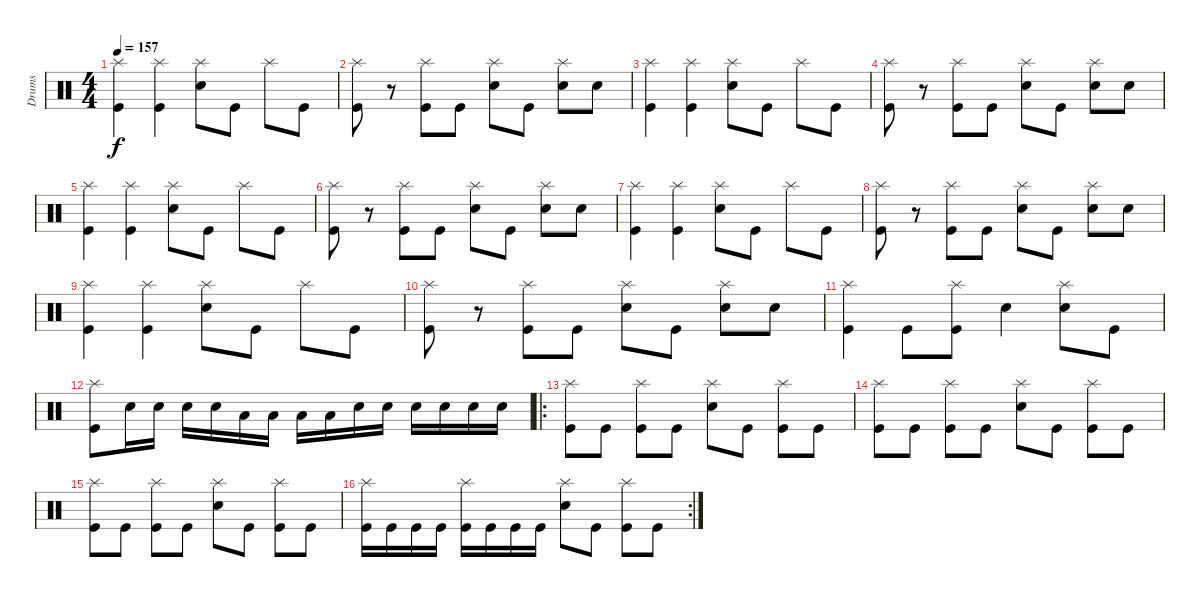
\track ("Drums" "Drums") {instrument percussion}
\staff {score}
\articulation defaults
\ts (4 4)
\tempo 157
\clef neutral
\ks c
("Splash (hit)" "Kick (hit)").4{dy f} ("Splash (hit)" "Kick (hit)").4 ("Splash (hit)" "Electric Snare (hit)").8 "Kick (hit)".8 "Splash (hit)".8 "Kick (hit)".8 |
("Splash (hit)" "Kick (hit)").8 r.8 ("Splash (hit)" "Kick (hit)").8 "Kick (hit)".8 ("Splash (hit)" "Electric Snare (hit)").8 "Kick (hit)".8 ("Splash (hit)" "Electric Snare (hit)").8 "Electric Snare (hit)".8 |
("Splash (hit)" "Kick (hit)").4 ("Splash (hit)" "Kick (hit)").4 ("Splash (hit)" "Electric Snare (hit)").8 "Kick (hit)".8 "Splash (hit)".8 "Kick (hit)".8 |
("Splash (hit)" "Kick (hit)").8 r.8 ("Splash (hit)" "Kick (hit)").8 "Kick (hit)".8 ("Splash (hit)" "Electric Snare (hit)").8 "Kick (hit)".8 ("Splash (hit)" "Electric Snare (hit)").8 "Electric Snare (hit)".8 |
("Splash (hit)" "Kick (hit)").4 ("Splash (hit)" "Kick (hit)").4 ("Splash (hit)" "Electric Snare (hit)").8 "Kick (hit)".8 "Splash (hit)".8 "Kick (hit)".8 |
("Splash (hit)" "Kick (hit)").8 r.8 ("Splash (hit)" "Kick (hit)").8 "Kick (hit)".8 ("Splash (hit)" "Electric Snare (hit)").8 "Kick (hit)".8 ("Splash (hit)" "Electric Snare (hit)").8 "Electric Snare (hit)".8 |
("Splash (hit)" "Kick (hit)").4 ("Splash (hit)" "Kick (hit)").4 ("Splash (hit)" "Electric Snare (hit)").8 "Kick (hit)".8 "Splash (hit)".8 "Kick (hit)".8 |
("Splash (hit)" "Kick (hit)").8 r.8 ("Splash (hit)" "Kick (hit)").8 "Kick (hit)".8 ("Splash (hit)" "Electric Snare (hit)").8 "Kick (hit)".8 ("Splash (hit)" "Electric Snare (hit)").8 "Electric Snare (hit)".8 |
("Splash (hit)" "Kick (hit)").4 ("Splash (hit)" "Kick (hit)").4 ("Splash (hit)" "Electric Snare (hit)").8 "Kick (hit)".8 "Splash (hit)".8 "Kick (hit)".8 |
("Splash (hit)" "Kick (hit)").8 r.8 ("Splash (hit)" "Kick (hit)").8 "Kick (hit)".8 ("Splash (hit)" "Electric Snare (hit)").8 "Kick (hit)".8 ("Splash (hit)" "Electric Snare (hit)").8 "Electric Snare (hit)".8 |
("Splash (hit)" "Kick (hit)").4 "Kick (hit)".8 ("Splash (hit)" "Kick (hit)").8 "Electric Snare (hit)".4 ("Splash (hit)" "Electric Snare (hit)").8 "Kick (hit)".8 |
("Splash (hit)" "Kick (hit)").8 "Electric Snare (hit)".16 "Electric Snare (hit)".16 "Electric Snare (hit)".16 "Electric Snare (hit)".16 "Low Tom (hit)".16 "Low Tom (hit)".16 "Low Tom (hit)".16 "Low Tom (hit)".16 "Electric Snare (hit)".16 "Electric Snare (hit)".16 "Electric Snare (hit)".16 "Electric Snare (hit)".16 "Electric Snare (hit)".16 "Electric Snare (hit)".16 |
\ro
("Splash (hit)" "Kick (hit)").8 "Kick (hit)".8 ("Splash (hit)" "Kick (hit)").8 "Kick (hit)".8 ("Splash (hit)" "Electric Snare (hit)").8 "Kick (hit)".8 ("Splash (hit)" "Kick (hit)").8 "Kick (hit)".8 |
("Splash (hit)" "Kick (hit)").8 "Kick (hit)".8 ("Splash (hit)" "Kick (hit)").8 "Kick (hit)".8 ("Splash (hit)" "Electric Snare (hit)").8 "Kick (hit)".8 ("Splash (hit)" "Kick (hit)").8 "Kick (hit)".8 |
("Splash (hit)" "Kick (hit)").8 "Kick (hit)".8 ("Splash (hit)" "Kick (hit)").8 "Kick (hit)".8 ("Splash (hit)" "Electric Snare (hit)").8 "Kick (hit)".8 ("Splash (hit)" "Kick (hit)").8 "Kick (hit)".8 |
\rc 2
("Splash (hit)" "Kick (hit)").16 "Kick (hit)".16 "Kick (hit)".16 "Kick (hit)".16 ("Splash (hit)" "Kick (hit)").16 "Kick (hit)".16 "Kick (hit)".16 "Kick (hit)".16 ("Splash (hit)" "Electric Snare (hit)").8 "Kick (hit)".8 ("Splash (hit)" "Kick (hit)").8 "Kick (hit)".8
